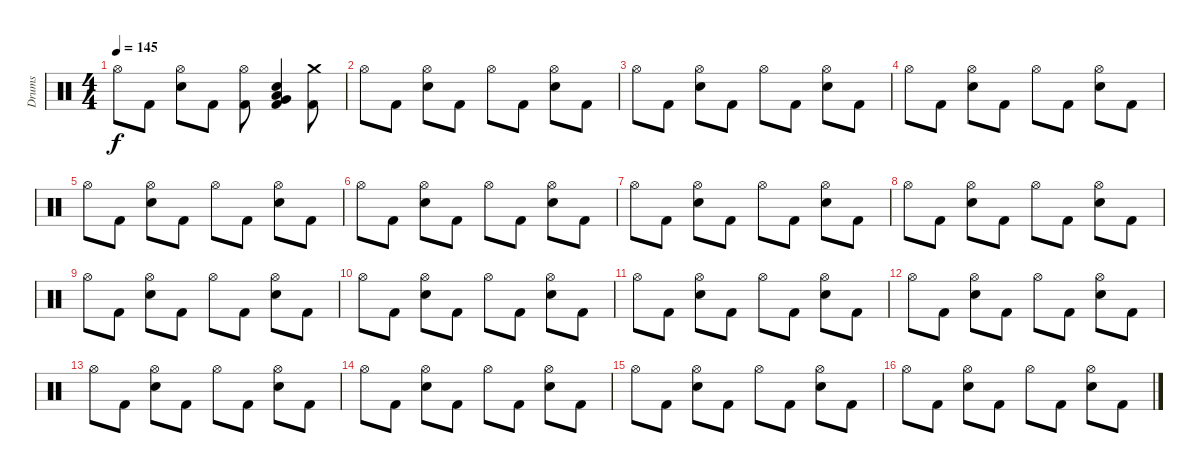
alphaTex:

\track ("Drums" "Drums") {instrument percussion}
\staff {score}
\articulation defaults
\ts (4 4)
\tempo 145
\clef neutral
\ks c "Hi-Hat (open)".8{dy f} "Kick (hit) 2".8
("Hi-Hat (open)" "Electric Snare (hit)").8 "Kick (hit) 2".8 ("Hi-Hat (open)" "Kick (hit) 2").8 ("Low Floor Tom (hit)" "Electric Snare (hit)" "Very Low Tom (hit)" "Kick (hit) 2").4 ("Crash medium (hit)" "Kick (hit) 2").8 |
"Hi-Hat (open)".8 "Kick (hit) 2".8 ("Hi-Hat (open)" "Electric Snare (hit)").8 "Kick (hit) 2".8 "Hi-Hat (open)".8 "Kick (hit) 2".8 ("Hi-Hat (open)" "Electric Snare (hit)").8 "Kick (hit) 2".8 |
"Hi-Hat (open)".8 "Kick (hit) 2".8 ("Hi-Hat (open)" "Electric Snare (hit)").8 "Kick (hit) 2".8 "Hi-Hat (open)".8 "Kick (hit) 2".8 ("Hi-Hat (open)" "Electric Snare (hit)").8 "Kick (hit) 2".8 |
"Hi-Hat (open)".8 "Kick (hit) 2".8 ("Hi-Hat (open)" "Electric Snare (hit)").8 "Kick (hit) 2".8 "Hi-Hat (open)".8 "Kick (hit) 2".8 ("Hi-Hat (open)" "Electric Snare (hit)").8 "Kick (hit) 2".8 |
"Hi-Hat (open)".8 "Kick (hit) 2".8 ("Hi-Hat (open)" "Electric Snare (hit)").8 "Kick (hit) 2".8 "Hi-Hat (open)".8 "Kick (hit) 2".8 ("Hi-Hat (open)" "Electric Snare (hit)").8 "Kick (hit) 2".8 |
"Hi-Hat (open)".8 "Kick (hit) 2".8 ("Hi-Hat (open)" "Electric Snare (hit)").8 "Kick (hit) 2".8 "Hi-Hat (open)".8 "Kick (hit) 2".8 ("Hi-Hat (open)" "Electric Snare (hit)").8 "Kick (hit) 2".8 |
"Hi-Hat (open)".8 "Kick (hit) 2".8 ("Hi-Hat (open)" "Electric Snare (hit)").8 "Kick (hit) 2".8 "Hi-Hat (open)".8 "Kick (hit) 2".8 ("Hi-Hat (open)" "Electric Snare (hit)").8 "Kick (hit) 2".8 |
"Hi-Hat (open)".8 "Kick (hit) 2".8 ("Hi-Hat (open)" "Electric Snare (hit)").8 "Kick (hit) 2".8 "Hi-Hat (open)".8 "Kick (hit) 2".8 ("Hi-Hat (open)" "Electric Snare (hit)").8 "Kick (hit) 2".8 |
"Hi-Hat (open)".8 "Kick (hit) 2".8 ("Hi-Hat (open)" "Electric Snare (hit)").8 "Kick (hit) 2".8 "Hi-Hat (open)".8 "Kick (hit) 2".8 ("Hi-Hat (open)" "Electric Snare (hit)").8 "Kick (hit) 2".8 |
"Hi-Hat (open)".8 "Kick (hit) 2".8 ("Hi-Hat (open)" "Electric Snare (hit)").8 "Kick (hit) 2".8 "Hi-Hat (open)".8 "Kick (hit) 2".8 ("Hi-Hat (open)" "Electric Snare (hit)").8 "Kick (hit) 2".8 |
"Hi-Hat (open)".8 "Kick (hit) 2".8 ("Hi-Hat (open)" "Electric Snare (hit)").8 "Kick (hit) 2".8 "Hi-Hat (open)".8 "Kick (hit) 2".8 ("Hi-Hat (open)" "Electric Snare (hit)").8 "Kick (hit) 2".8 |
"Hi-Hat (open)".8 "Kick (hit) 2".8 ("Hi-Hat (open)" "Electric Snare (hit)").8 "Kick (hit) 2".8 "Hi-Hat (open)".8 "Kick (hit) 2".8 ("Hi-Hat (open)" "Electric Snare (hit)").8 "Kick (hit) 2".8 |
"Hi-Hat (open)".8 "Kick (hit) 2".8 ("Hi-Hat (open)" "Electric Snare (hit)").8 "Kick (hit) 2".8 "Hi-Hat (open)".8 "Kick (hit) 2".8 ("Hi-Hat (open)" "Electric Snare (hit)").8 "Kick (hit) 2".8 |
"Hi-Hat (open)".8 "Kick (hit) 2".8 ("Hi-Hat (open)" "Electric Snare (hit)").8 "Kick (hit) 2".8 "Hi-Hat (open)".8 "Kick (hit) 2".8 ("Hi-Hat (open)" "Electric Snare (hit)").8 "Kick (hit) 2".8 |
"Hi-Hat (open)".8 "Kick (hit) 2".8 ("Hi-Hat (open)" "Electric Snare (hit)").8 "Kick (hit) 2".8 "Hi-Hat (open)".8 "Kick (hit) 2".8 ("Hi-Hat (open)" "Electric Snare (hit)").8 "Kick (hit) 2".8 |
"Hi-Hat (open)".8 "Kick (hit) 2".8 ("Hi-Hat (open)" "Electric Snare (hit)").8 "Kick (hit) 2".8 "Hi-Hat (open)".8 "Kick (hit) 2".8 ("Hi-Hat (open)" "Electric Snare (hit)").8 "Kick (hit) 2".8
